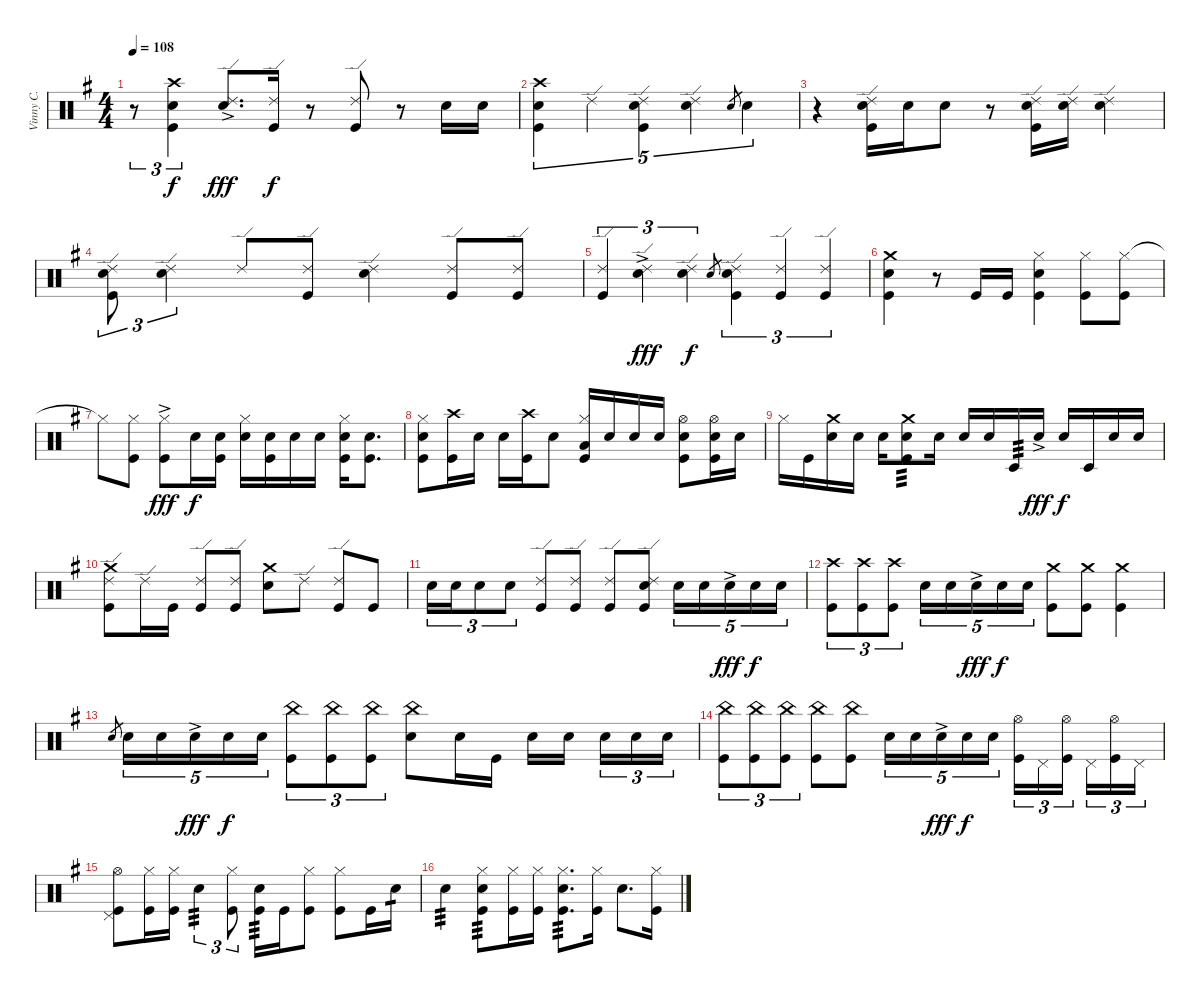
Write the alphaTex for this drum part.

\track ("Vinny C." "Vinny C.") {instrument percussion}
\staff {score}
\articulation defaults
\ts (4 4)
\tempo 108
\clef neutral
\ks g
r.8{tu (3 2) dy f} ("Crash high (hit)" "Electric Snare (hit)" "Kick (hit)").4{tu (3 2)} ("Ride (edge) 2"{ac} "Electric Snare (hit)").8{d dy fff} ("Ride (edge) 2" "Kick (hit)").16{dy f} r.8 ("Ride (edge) 2" "Kick (hit)").8 r.8 "Electric Snare (hit)".16 "Electric Snare (hit)".16 |
("Crash high (hit)" "Electric Snare (hit)" "Kick (hit)").4{tu (5 4)} "Ride (edge) 2".4{tu (5 4)} ("Ride (edge) 2" "Electric Snare (hit)" "Kick (hit)").4{tu (5 4)} ("Ride (edge) 2" "Electric Snare (hit)").4{tu (5 4)} "Electric Snare (hit)".8{gr} "Electric Snare (hit)".4{tu (5 4)} |
r.4 ("Ride (edge) 2" "Electric Snare (hit)" "Kick (hit)").16 "Electric Snare (hit)".16 "Electric Snare (hit)".8 r.8 ("Ride (edge) 2" "Electric Snare (hit)" "Kick (hit)").16 ("Ride (edge) 2" "Electric Snare (hit)").16 ("Ride (edge) 2" "Electric Snare (hit)").4 |
("Ride (edge) 2" "Electric Snare (hit)" "Kick (hit)").8{tu (3 2)} ("Ride (edge) 2" "Electric Snare (hit)").4{tu (3 2)} "Ride (edge) 2".8 ("Ride (edge) 2" "Kick (hit)").8 ("Ride (edge) 2" "Electric Snare (hit)").4 ("Ride (edge) 2" "Kick (hit)").8 ("Ride (edge) 2" "Kick (hit)").8 |
("Ride (edge) 2" "Kick (hit)").4{tu (3 2)} ("Ride (edge) 2"{ac} "Electric Snare (hit)").4{tu (3 2) dy fff} ("Ride (edge) 2" "Electric Snare (hit)").4{tu (3 2) dy f} "Electric Snare (hit)".8{gr} ("Ride (edge) 2" "Electric Snare (hit)" "Kick (hit)").4{tu (3 2)} ("Ride (edge) 2" "Kick (hit)").4{tu (3 2)} ("Ride (edge) 2" "Kick (hit)").4{tu (3 2)} |
("Crash medium (hit)" "Electric Snare (hit)" "Kick (hit)").4 r.8 "Kick (hit)".16 "Kick (hit)".16 ("Hi-Hat (closed)" "Electric Snare (hit)" "Kick (hit)").4 ("Hi-Hat (closed)" "Kick (hit)").8 ("Hi-Hat (closed)" "Kick (hit)").8 |
"Hi-Hat (closed)"{t}.8 ("Hi-Hat (closed)" "Kick (hit)").8 ("Hi-Hat (closed)"{ac} "Kick (hit)").8{dy fff} "Electric Snare (hit)".16{dy f} ("Electric Snare (hit)" "Kick (hit)").16 ("Hi-Hat (closed)" "Electric Snare (hit)").16 ("Electric Snare (hit)" "Kick (hit)").16 "Electric Snare (hit)".16 "Electric Snare (hit)".16 ("Hi-Hat (closed)" "Electric Snare (hit)" "Kick (hit)").16 ("Electric Snare (hit)" "Kick (hit)").8{d} |
("Hi-Hat (closed)" "Electric Snare (hit)" "Kick (hit)").8 ("Crash high (hit)" "Kick (hit)").16 "Electric Snare (hit)".16 "Electric Snare (hit)".16 ("Crash high (hit)" "Kick (hit)").16 "Electric Snare (hit)".8 ("Hi-Hat (closed)" "Low Tom (hit)" "Kick (hit)").16 "Electric Snare (hit)".16 "Electric Snare (hit)".16 "Electric Snare (hit)".16 ("Hi-Hat (open)" "Electric Snare (hit)" "Kick (hit)").8 ("Hi-Hat (open)" "Electric Snare (hit)" "Kick (hit)").16 "Electric Snare (hit)".16 |
"Hi-Hat (closed)".16 "Kick (hit)".16 ("Crash medium (hit)" "Electric Snare (hit)").16 "Electric Snare (hit)".16 "Electric Snare (hit)".16 ("Crash medium (hit)" "Electric Snare (hit)" "Kick (hit)").8{tp 3} "Electric Snare (hit)".16 "Electric Snare (hit)".16 "Electric Snare (hit)".16 "Timbale low (hit)".16{tp 3} "Electric Snare (hit)"{ac}.16{dy fff} "Electric Snare (hit)".16{dy f} "Timbale low (hit)"{tr (66 32)}.16 "Electric Snare (hit)".16 "Electric Snare (hit)".16 |
("Ride (edge) 2" "Crash medium (hit)" "Kick (hit)").8 "Ride (edge) 2".16 "Kick (hit)".16 ("Ride (edge) 2" "Kick (hit)").8 ("Ride (edge) 2" "Kick (hit)").8 ("Crash medium (hit)" "Electric Snare (hit)").8 "Ride (edge) 2".8 ("Ride (edge) 2" "Kick (hit)").8 "Kick (hit)".8 |
"Electric Snare (hit)".16{tu (3 2)} "Electric Snare (hit)".16{tu (3 2)} "Electric Snare (hit)".8{tu (3 2)} "Electric Snare (hit)".8{tu (3 2)} ("Ride (edge) 2" "Kick (hit)").8 ("Ride (edge) 2" "Kick (hit)").8 ("Ride (edge) 2" "Kick (hit)").8 ("Ride (edge) 2" "Electric Snare (hit)" "Kick (hit)").8 "Electric Snare (hit)".16{tu (5 4)} "Electric Snare (hit)".16{tu (5 4)} "Electric Snare (hit)"{ac}.16{tu (5 4) dy fff} "Electric Snare (hit)".16{tu (5 4) dy f} "Electric Snare (hit)".16{tu (5 4)} |
("Crash high (hit)" "Kick (hit)").8{tu (3 2)} ("Crash high (hit)" "Kick (hit)").8{tu (3 2)} ("Crash high (hit)" "Kick (hit)").8{tu (3 2)} "Electric Snare (hit)".16{tu (5 4)} "Electric Snare (hit)".16{tu (5 4)} "Electric Snare (hit)"{ac}.16{tu (5 4) dy fff} "Electric Snare (hit)".16{tu (5 4) dy f} "Electric Snare (hit)".16{tu (5 4)} ("Crash medium (hit)" "Kick (hit)").8 ("Crash medium (hit)" "Kick (hit)").8 ("Crash medium (hit)" "Kick (hit)").4 |
"Electric Snare (hit)".8{gr} "Electric Snare (hit)".16{tu (5 4)} "Electric Snare (hit)".16{tu (5 4)} "Electric Snare (hit)"{ac}.16{tu (5 4) dy fff} "Electric Snare (hit)".16{tu (5 4) dy f} "Electric Snare (hit)".16{tu (5 4)} ("China (hit)" "Kick (hit)").8{tu (3 2)} ("China (hit)" "Kick (hit)").8{tu (3 2)} ("China (hit)" "Kick (hit)").8{tu (3 2)} ("China (hit)" "Electric Snare (hit)").8 "Electric Snare (hit)".16 "Kick (hit)".16 "Electric Snare (hit)".16 "Electric Snare (hit)".16 "Electric Snare (hit)".16{tu (3 2)} "Electric Snare (hit)".16{tu (3 2)} "Electric Snare (hit)".16{tu (3 2)} |
("China (hit)" "Kick (hit)").8{tu (3 2)} ("China (hit)" "Kick (hit)").8{tu (3 2)} ("China (hit)" "Kick (hit)").8{tu (3 2)} ("China (hit)" "Kick (hit)").8 ("China (hit)" "Kick (hit)").8 "Electric Snare (hit)".16{tu (5 4)} "Electric Snare (hit)".16{tu (5 4)} "Electric Snare (hit)"{ac}.16{tu (5 4) dy fff} "Electric Snare (hit)".16{tu (5 4) dy f} "Electric Snare (hit)".16{tu (5 4)} ("Hi-Hat (open)" "Kick (hit)").16{tu (3 2)} "Pedal Hi-Hat (hit)".16{tu (3 2)} ("Hi-Hat (open)" "Kick (hit)").16{tu (3 2)} "Pedal Hi-Hat (hit)".16{tu (3 2)} ("Hi-Hat (open)" "Kick (hit)").16{tu (3 2)} "Pedal Hi-Hat (hit)".16{tu (3 2)} |
("Hi-Hat (open)" "Pedal Hi-Hat (hit)" "Kick (hit)").8 ("Hi-Hat (closed)" "Kick (hit)").16 ("Hi-Hat (closed)" "Kick (hit)").16 "Electric Snare (hit)".4{tu (3 2) tp 3} ("Hi-Hat (closed)" "Kick (hit)").8{tu (3 2)} ("Electric Snare (hit)" "Kick (hit)").16{tp 3} "Kick (hit)".16 ("Hi-Hat (closed)" "Kick (hit)").8 ("Hi-Hat (closed)" "Kick (hit)").8 "Kick (hit)".16 "Electric Snare (hit)".16{tp 1} |
"Electric Snare (hit)".4{tp 3} ("Hi-Hat (closed)" "Electric Snare (hit)" "Kick (hit)").8{tp 3} ("Hi-Hat (closed)" "Kick (hit)").16 ("Hi-Hat (closed)" "Kick (hit)").16 ("Hi-Hat (closed)" "Electric Snare (hit)" "Kick (hit)").8{d tp 3} ("Hi-Hat (closed)" "Kick (hit)").16 "Electric Snare (hit)".8{d} ("Hi-Hat (closed)" "Kick (hit)").16
